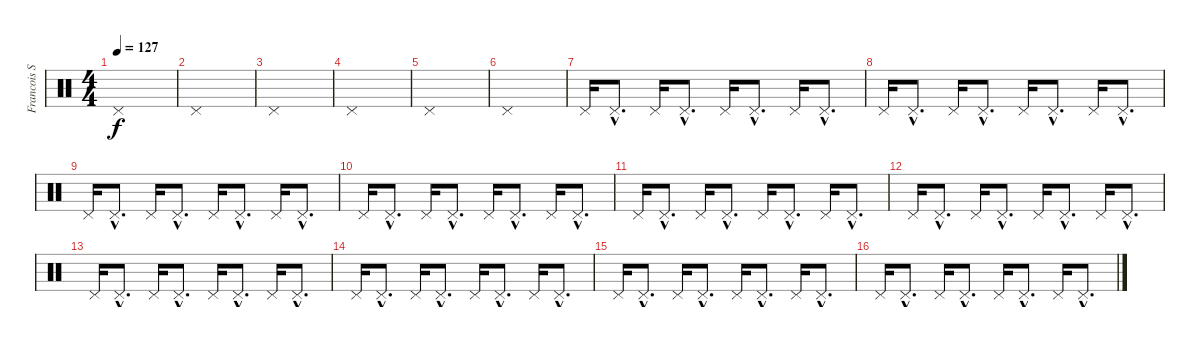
\track ("Francois Soulier" "Francois S") {instrument percussion}
\staff {score}
\articulation defaults
\ts (4 4)
\tempo 127
\clef neutral
\ks c "Pedal Hi-Hat (hit)".1{dy f}
|
"Pedal Hi-Hat (hit)".1 |
"Pedal Hi-Hat (hit)".1 |
"Pedal Hi-Hat (hit)".1 |
"Pedal Hi-Hat (hit)".1 |
"Pedal Hi-Hat (hit)".1 |
"Pedal Hi-Hat (hit)".16 "Pedal Hi-Hat (hit)"{hac}.8{d} "Pedal Hi-Hat (hit)".16 "Pedal Hi-Hat (hit)"{hac}.8{d} "Pedal Hi-Hat (hit)".16 "Pedal Hi-Hat (hit)"{hac}.8{d} "Pedal Hi-Hat (hit)".16 "Pedal Hi-Hat (hit)"{hac}.8{d} |
"Pedal Hi-Hat (hit)".16 "Pedal Hi-Hat (hit)"{hac}.8{d} "Pedal Hi-Hat (hit)".16 "Pedal Hi-Hat (hit)"{hac}.8{d} "Pedal Hi-Hat (hit)".16 "Pedal Hi-Hat (hit)"{hac}.8{d} "Pedal Hi-Hat (hit)".16 "Pedal Hi-Hat (hit)"{hac}.8{d} |
"Pedal Hi-Hat (hit)".16 "Pedal Hi-Hat (hit)"{hac}.8{d} "Pedal Hi-Hat (hit)".16 "Pedal Hi-Hat (hit)"{hac}.8{d} "Pedal Hi-Hat (hit)".16 "Pedal Hi-Hat (hit)"{hac}.8{d} "Pedal Hi-Hat (hit)".16 "Pedal Hi-Hat (hit)"{hac}.8{d} |
"Pedal Hi-Hat (hit)".16 "Pedal Hi-Hat (hit)"{hac}.8{d} "Pedal Hi-Hat (hit)".16 "Pedal Hi-Hat (hit)"{hac}.8{d} "Pedal Hi-Hat (hit)".16 "Pedal Hi-Hat (hit)"{hac}.8{d} "Pedal Hi-Hat (hit)".16 "Pedal Hi-Hat (hit)"{hac}.8{d} |
"Pedal Hi-Hat (hit)".16 "Pedal Hi-Hat (hit)"{hac}.8{d} "Pedal Hi-Hat (hit)".16 "Pedal Hi-Hat (hit)"{hac}.8{d} "Pedal Hi-Hat (hit)".16 "Pedal Hi-Hat (hit)"{hac}.8{d} "Pedal Hi-Hat (hit)".16 "Pedal Hi-Hat (hit)"{hac}.8{d} |
"Pedal Hi-Hat (hit)".16 "Pedal Hi-Hat (hit)"{hac}.8{d} "Pedal Hi-Hat (hit)".16 "Pedal Hi-Hat (hit)"{hac}.8{d} "Pedal Hi-Hat (hit)".16 "Pedal Hi-Hat (hit)"{hac}.8{d} "Pedal Hi-Hat (hit)".16 "Pedal Hi-Hat (hit)"{hac}.8{d} |
"Pedal Hi-Hat (hit)".16 "Pedal Hi-Hat (hit)"{hac}.8{d} "Pedal Hi-Hat (hit)".16 "Pedal Hi-Hat (hit)"{hac}.8{d} "Pedal Hi-Hat (hit)".16 "Pedal Hi-Hat (hit)"{hac}.8{d} "Pedal Hi-Hat (hit)".16 "Pedal Hi-Hat (hit)"{hac}.8{d} |
"Pedal Hi-Hat (hit)".16 "Pedal Hi-Hat (hit)"{hac}.8{d} "Pedal Hi-Hat (hit)".16 "Pedal Hi-Hat (hit)"{hac}.8{d} "Pedal Hi-Hat (hit)".16 "Pedal Hi-Hat (hit)"{hac}.8{d} "Pedal Hi-Hat (hit)".16 "Pedal Hi-Hat (hit)"{hac}.8{d} |
"Pedal Hi-Hat (hit)".16 "Pedal Hi-Hat (hit)"{hac}.8{d} "Pedal Hi-Hat (hit)".16 "Pedal Hi-Hat (hit)"{hac}.8{d} "Pedal Hi-Hat (hit)".16 "Pedal Hi-Hat (hit)"{hac}.8{d} "Pedal Hi-Hat (hit)".16 "Pedal Hi-Hat (hit)"{hac}.8{d} |
"Pedal Hi-Hat (hit)".16 "Pedal Hi-Hat (hit)"{hac}.8{d} "Pedal Hi-Hat (hit)".16 "Pedal Hi-Hat (hit)"{hac}.8{d} "Pedal Hi-Hat (hit)".16 "Pedal Hi-Hat (hit)"{hac}.8{d} "Pedal Hi-Hat (hit)".16 "Pedal Hi-Hat (hit)"{hac}.8{d}
